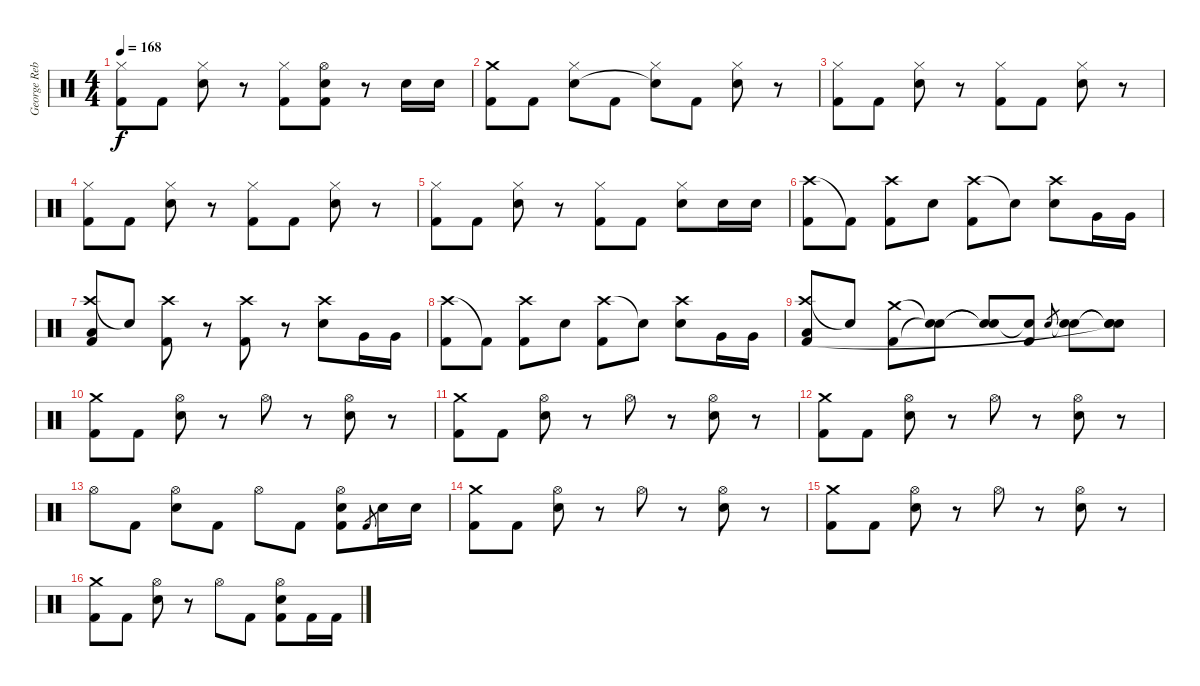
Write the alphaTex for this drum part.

\track ("George Rebelo" "George Reb") {instrument percussion}
\staff {score}
\articulation defaults
\ts (4 4)
\tempo 168
\clef neutral
\ks c
("Hi-Hat (closed)" "Kick (hit) 2").8{dy f} "Kick (hit) 2".8 ("Hi-Hat (closed)" "Electric Snare (hit)").8 r.8 ("Hi-Hat (closed)" "Kick (hit) 2").8 ("Hi-Hat (open)" "Electric Snare (hit)" "Kick (hit) 2").8 r.8 "Electric Snare (hit)".16 "Electric Snare (hit)".16 |
("Crash medium (hit)" "Kick (hit) 2").8 "Kick (hit) 2".8 ("Hi-Hat (closed)" "Electric Snare (hit)").8 "Kick (hit) 2".8 ("Hi-Hat (closed)" "Snare (hit)"{t}).8 "Kick (hit) 2".8 ("Hi-Hat (closed)" "Electric Snare (hit)").8 r.8 |
("Hi-Hat (closed)" "Kick (hit) 2").8 "Kick (hit) 2".8 ("Hi-Hat (closed)" "Electric Snare (hit)").8 r.8 ("Hi-Hat (closed)" "Kick (hit) 2").8 "Kick (hit) 2".8 ("Hi-Hat (closed)" "Electric Snare (hit)").8 r.8 |
("Hi-Hat (closed)" "Kick (hit) 2").8 "Kick (hit) 2".8 ("Hi-Hat (closed)" "Electric Snare (hit)").8 r.8 ("Hi-Hat (closed)" "Kick (hit) 2").8 "Kick (hit) 2".8 ("Hi-Hat (closed)" "Electric Snare (hit)").8 r.8 |
("Hi-Hat (closed)" "Kick (hit) 2").8 "Kick (hit) 2".8 ("Hi-Hat (closed)" "Electric Snare (hit)").8 r.8 ("Hi-Hat (closed)" "Kick (hit) 2").8 "Kick (hit) 2".8 ("Hi-Hat (closed)" "Electric Snare (hit)").8 "Electric Snare (hit)".16 "Electric Snare (hit)".16 |
("Crash high (hit)" "Kick (hit) 2").8 "Kick (hit) 2"{t}.8 ("Crash high (hit)" "Kick (hit) 2").8 "Electric Snare (hit)".8 ("Crash high (hit)" "Kick (hit) 2").8 "Snare (hit)"{t}.8 ("Crash high (hit)" "Electric Snare (hit)").8 "Very Low Tom (hit)".16 "Very Low Tom (hit)".16 |
("Crash high (hit)" "Low Floor Tom (hit)" "Kick (hit) 2").8 "Snare (hit)"{t}.8 ("Crash high (hit)" "Kick (hit) 2").8 r.8 ("Crash high (hit)" "Kick (hit) 2").8 r.8 ("Crash high (hit)" "Electric Snare (hit)").8 "Very Low Tom (hit)".16 "Very Low Tom (hit)".16 |
("Crash high (hit)" "Kick (hit) 2").8 "Kick (hit) 2"{t}.8 ("Crash high (hit)" "Kick (hit) 2").8 "Electric Snare (hit)".8 ("Crash high (hit)" "Kick (hit) 2").8 "Snare (hit)"{t}.8 ("Crash high (hit)" "Electric Snare (hit)").8 "Very Low Tom (hit)".16 "Very Low Tom (hit)".16 |
("Crash high (hit)" "Low Floor Tom (hit)" "Kick (hit) 2").8 "Snare (hit)"{t}.8 ("Crash medium (hit)" "Kick (hit) 2").8 ("Snare (hit)"{t} "Snare (hit)"{t}).8 ("Snare (hit)"{t} "Snare (hit)"{t}).8 ("Snare (hit)"{t} "Kick (hit) 2").8 "Electric Snare (hit)".8{gr} ("Snare (hit)"{t} "Electric Snare (hit)").8 ("Snare (hit)"{t} "Electric Snare (hit)"{t} "Snare (hit)"{t}).8 |
("Crash medium (hit)" "Kick (hit) 2").8 "Kick (hit) 2".8 ("Hi-Hat (open)" "Electric Snare (hit)").8 r.8 "Hi-Hat (open)".8 r.8 ("Hi-Hat (open)" "Electric Snare (hit)").8 r.8 |
("Crash medium (hit)" "Kick (hit) 2").8 "Kick (hit) 2".8 ("Hi-Hat (open)" "Electric Snare (hit)").8 r.8 "Hi-Hat (open)".8 r.8 ("Hi-Hat (open)" "Electric Snare (hit)").8 r.8 |
("Crash medium (hit)" "Kick (hit) 2").8 "Kick (hit) 2".8 ("Hi-Hat (open)" "Electric Snare (hit)").8 r.8 "Hi-Hat (open)".8 r.8 ("Hi-Hat (open)" "Electric Snare (hit)").8 r.8 |
"Hi-Hat (open)".8 "Kick (hit) 2".8 ("Hi-Hat (open)" "Electric Snare (hit)").8 "Kick (hit) 2".8 "Hi-Hat (open)".8 "Kick (hit) 2".8 ("Hi-Hat (open)" "Electric Snare (hit)" "Kick (hit) 2").8 "Kick (hit) 2".8{gr} "Electric Snare (hit)".16 "Electric Snare (hit)".16 |
("Crash medium (hit)" "Kick (hit) 2").8 "Kick (hit) 2".8 ("Hi-Hat (open)" "Electric Snare (hit)").8 r.8 "Hi-Hat (open)".8 r.8 ("Hi-Hat (open)" "Electric Snare (hit)").8 r.8 |
("Crash medium (hit)" "Kick (hit) 2").8 "Kick (hit) 2".8 ("Hi-Hat (open)" "Electric Snare (hit)").8 r.8 "Hi-Hat (open)".8 r.8 ("Hi-Hat (open)" "Electric Snare (hit)").8 r.8 |
("Crash medium (hit)" "Kick (hit) 2").8 "Kick (hit) 2".8 ("Hi-Hat (open)" "Electric Snare (hit)").8 r.8 "Hi-Hat (open)".8 "Kick (hit) 2".8 ("Hi-Hat (open)" "Electric Snare (hit)" "Kick (hit) 2").8 "Kick (hit) 2".16 "Kick (hit) 2".16
